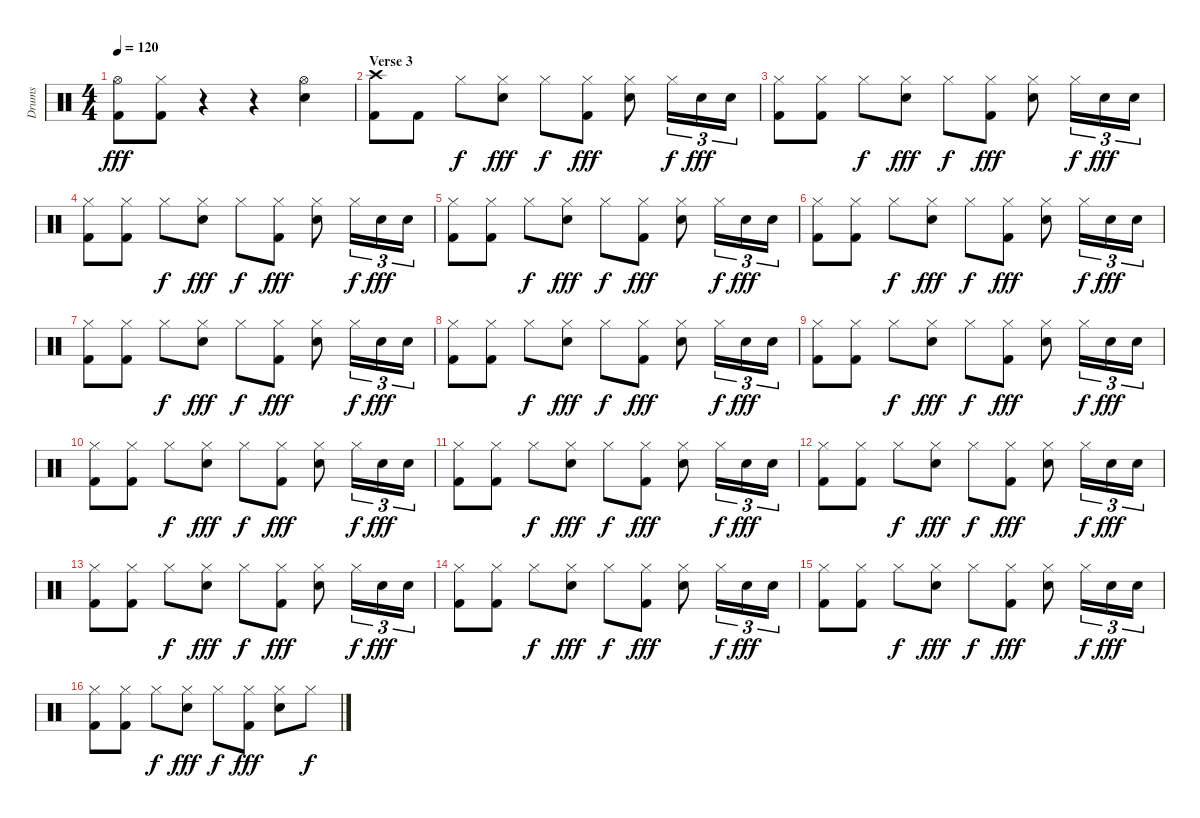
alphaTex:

\track ("Drums" "Drums") {instrument percussion}
\staff {score}
\articulation defaults
\ts (4 4)
\tempo 120
\clef neutral
\ks c
("Hi-Hat (open)" "Kick (hit) 2").8{dy fff} ("Hi-Hat (closed)" "Kick (hit) 2").8 r.4 r.4 ("Hi-Hat (open)" "Snare (hit) 2").4 |
\section ("" "Verse 3")
("Crash high (hit)" "Kick (hit) 2").8 "Kick (hit) 2".8 "Hi-Hat (closed)".8{dy f} ("Hi-Hat (closed)" "Snare (hit) 2").8{dy fff} "Hi-Hat (closed)".8{dy f} ("Hi-Hat (closed)" "Kick (hit) 2").8{dy fff} ("Hi-Hat (closed)" "Snare (hit) 2").8 "Hi-Hat (closed)".16{tu (3 2) dy f} "Snare (hit) 2".16{tu (3 2) dy fff} "Snare (hit) 2".16{tu (3 2)} |
("Hi-Hat (closed)" "Kick (hit) 2").8 ("Hi-Hat (closed)" "Kick (hit) 2").8 "Hi-Hat (closed)".8{dy f} ("Hi-Hat (closed)" "Snare (hit) 2").8{dy fff} "Hi-Hat (closed)".8{dy f} ("Hi-Hat (closed)" "Kick (hit) 2").8{dy fff} ("Hi-Hat (closed)" "Snare (hit) 2").8 "Hi-Hat (closed)".16{tu (3 2) dy f} "Snare (hit) 2".16{tu (3 2) dy fff} "Snare (hit) 2".16{tu (3 2)} |
("Hi-Hat (closed)" "Kick (hit) 2").8 ("Hi-Hat (closed)" "Kick (hit) 2").8 "Hi-Hat (closed)".8{dy f} ("Hi-Hat (closed)" "Snare (hit) 2").8{dy fff} "Hi-Hat (closed)".8{dy f} ("Hi-Hat (closed)" "Kick (hit) 2").8{dy fff} ("Hi-Hat (closed)" "Snare (hit) 2").8 "Hi-Hat (closed)".16{tu (3 2) dy f} "Snare (hit) 2".16{tu (3 2) dy fff} "Snare (hit) 2".16{tu (3 2)} |
("Hi-Hat (closed)" "Kick (hit) 2").8 ("Hi-Hat (closed)" "Kick (hit) 2").8 "Hi-Hat (closed)".8{dy f} ("Hi-Hat (closed)" "Snare (hit) 2").8{dy fff} "Hi-Hat (closed)".8{dy f} ("Hi-Hat (closed)" "Kick (hit) 2").8{dy fff} ("Hi-Hat (closed)" "Snare (hit) 2").8 "Hi-Hat (closed)".16{tu (3 2) dy f} "Snare (hit) 2".16{tu (3 2) dy fff} "Snare (hit) 2".16{tu (3 2)} |
("Hi-Hat (closed)" "Kick (hit) 2").8 ("Hi-Hat (closed)" "Kick (hit) 2").8 "Hi-Hat (closed)".8{dy f} ("Hi-Hat (closed)" "Snare (hit) 2").8{dy fff} "Hi-Hat (closed)".8{dy f} ("Hi-Hat (closed)" "Kick (hit) 2").8{dy fff} ("Hi-Hat (closed)" "Snare (hit) 2").8 "Hi-Hat (closed)".16{tu (3 2) dy f} "Snare (hit) 2".16{tu (3 2) dy fff} "Snare (hit) 2".16{tu (3 2)} |
("Hi-Hat (closed)" "Kick (hit) 2").8 ("Hi-Hat (closed)" "Kick (hit) 2").8 "Hi-Hat (closed)".8{dy f} ("Hi-Hat (closed)" "Snare (hit) 2").8{dy fff} "Hi-Hat (closed)".8{dy f} ("Hi-Hat (closed)" "Kick (hit) 2").8{dy fff} ("Hi-Hat (closed)" "Snare (hit) 2").8 "Hi-Hat (closed)".16{tu (3 2) dy f} "Snare (hit) 2".16{tu (3 2) dy fff} "Snare (hit) 2".16{tu (3 2)} |
("Hi-Hat (closed)" "Kick (hit) 2").8 ("Hi-Hat (closed)" "Kick (hit) 2").8 "Hi-Hat (closed)".8{dy f} ("Hi-Hat (closed)" "Snare (hit) 2").8{dy fff} "Hi-Hat (closed)".8{dy f} ("Hi-Hat (closed)" "Kick (hit) 2").8{dy fff} ("Hi-Hat (closed)" "Snare (hit) 2").8 "Hi-Hat (closed)".16{tu (3 2) dy f} "Snare (hit) 2".16{tu (3 2) dy fff} "Snare (hit) 2".16{tu (3 2)} |
("Hi-Hat (closed)" "Kick (hit) 2").8 ("Hi-Hat (closed)" "Kick (hit) 2").8 "Hi-Hat (closed)".8{dy f} ("Hi-Hat (closed)" "Snare (hit) 2").8{dy fff} "Hi-Hat (closed)".8{dy f} ("Hi-Hat (closed)" "Kick (hit) 2").8{dy fff} ("Hi-Hat (closed)" "Snare (hit) 2").8 "Hi-Hat (closed)".16{tu (3 2) dy f} "Snare (hit) 2".16{tu (3 2) dy fff} "Snare (hit) 2".16{tu (3 2)} |
("Hi-Hat (closed)" "Kick (hit) 2").8 ("Hi-Hat (closed)" "Kick (hit) 2").8 "Hi-Hat (closed)".8{dy f} ("Hi-Hat (closed)" "Snare (hit) 2").8{dy fff} "Hi-Hat (closed)".8{dy f} ("Hi-Hat (closed)" "Kick (hit) 2").8{dy fff} ("Hi-Hat (closed)" "Snare (hit) 2").8 "Hi-Hat (closed)".16{tu (3 2) dy f} "Snare (hit) 2".16{tu (3 2) dy fff} "Snare (hit) 2".16{tu (3 2)} |
("Hi-Hat (closed)" "Kick (hit) 2").8 ("Hi-Hat (closed)" "Kick (hit) 2").8 "Hi-Hat (closed)".8{dy f} ("Hi-Hat (closed)" "Snare (hit) 2").8{dy fff} "Hi-Hat (closed)".8{dy f} ("Hi-Hat (closed)" "Kick (hit) 2").8{dy fff} ("Hi-Hat (closed)" "Snare (hit) 2").8 "Hi-Hat (closed)".16{tu (3 2) dy f} "Snare (hit) 2".16{tu (3 2) dy fff} "Snare (hit) 2".16{tu (3 2)} |
("Hi-Hat (closed)" "Kick (hit) 2").8 ("Hi-Hat (closed)" "Kick (hit) 2").8 "Hi-Hat (closed)".8{dy f} ("Hi-Hat (closed)" "Snare (hit) 2").8{dy fff} "Hi-Hat (closed)".8{dy f} ("Hi-Hat (closed)" "Kick (hit) 2").8{dy fff} ("Hi-Hat (closed)" "Snare (hit) 2").8 "Hi-Hat (closed)".16{tu (3 2) dy f} "Snare (hit) 2".16{tu (3 2) dy fff} "Snare (hit) 2".16{tu (3 2)} |
("Hi-Hat (closed)" "Kick (hit) 2").8 ("Hi-Hat (closed)" "Kick (hit) 2").8 "Hi-Hat (closed)".8{dy f} ("Hi-Hat (closed)" "Snare (hit) 2").8{dy fff} "Hi-Hat (closed)".8{dy f} ("Hi-Hat (closed)" "Kick (hit) 2").8{dy fff} ("Hi-Hat (closed)" "Snare (hit) 2").8 "Hi-Hat (closed)".16{tu (3 2) dy f} "Snare (hit) 2".16{tu (3 2) dy fff} "Snare (hit) 2".16{tu (3 2)} |
("Hi-Hat (closed)" "Kick (hit) 2").8 ("Hi-Hat (closed)" "Kick (hit) 2").8 "Hi-Hat (closed)".8{dy f} ("Hi-Hat (closed)" "Snare (hit) 2").8{dy fff} "Hi-Hat (closed)".8{dy f} ("Hi-Hat (closed)" "Kick (hit) 2").8{dy fff} ("Hi-Hat (closed)" "Snare (hit) 2").8 "Hi-Hat (closed)".16{tu (3 2) dy f} "Snare (hit) 2".16{tu (3 2) dy fff} "Snare (hit) 2".16{tu (3 2)} |
("Hi-Hat (closed)" "Kick (hit) 2").8 ("Hi-Hat (closed)" "Kick (hit) 2").8 "Hi-Hat (closed)".8{dy f} ("Hi-Hat (closed)" "Snare (hit) 2").8{dy fff} "Hi-Hat (closed)".8{dy f} ("Hi-Hat (closed)" "Kick (hit) 2").8{dy fff} ("Hi-Hat (closed)" "Snare (hit) 2").8 "Hi-Hat (closed)".16{tu (3 2) dy f} "Snare (hit) 2".16{tu (3 2) dy fff} "Snare (hit) 2".16{tu (3 2)} |
("Hi-Hat (closed)" "Kick (hit) 2").8 ("Hi-Hat (closed)" "Kick (hit) 2").8 "Hi-Hat (closed)".8{dy f} ("Hi-Hat (closed)" "Snare (hit) 2").8{dy fff} "Hi-Hat (closed)".8{dy f} ("Hi-Hat (closed)" "Kick (hit) 2").8{dy fff} ("Hi-Hat (closed)" "Snare (hit) 2").8 "Hi-Hat (closed)".8{dy f}
